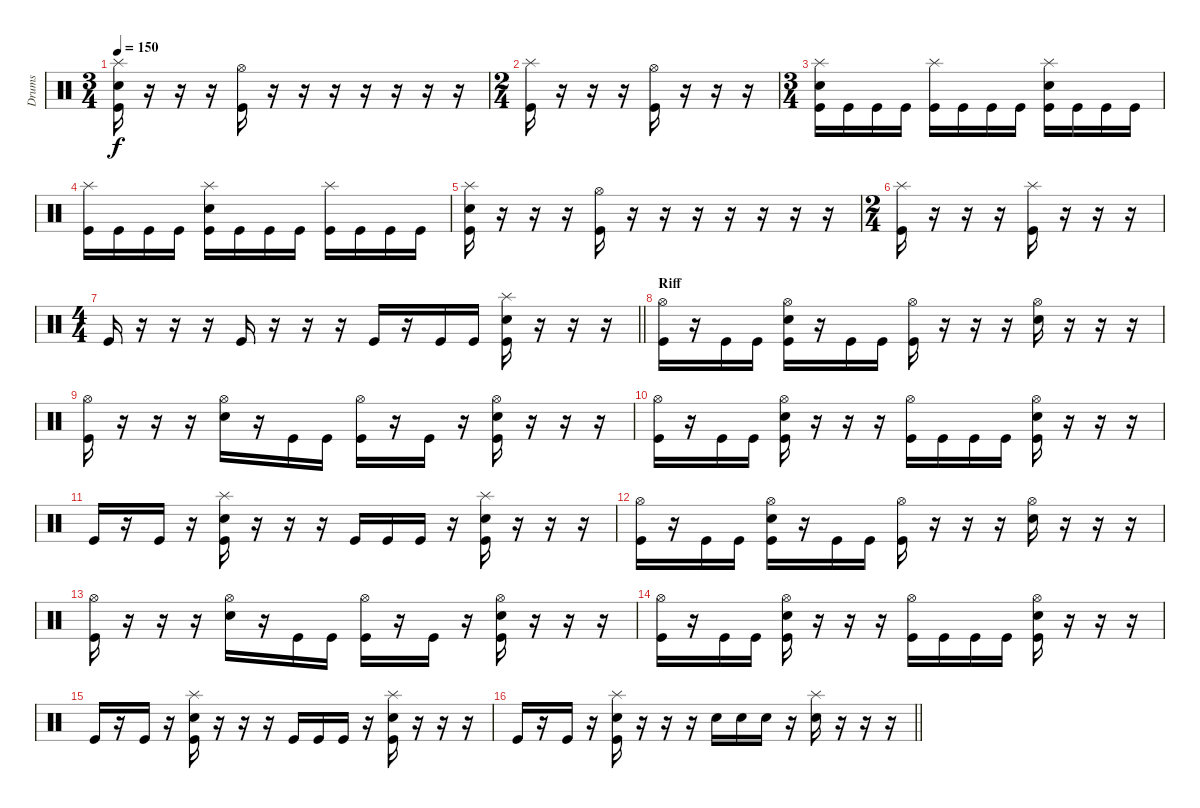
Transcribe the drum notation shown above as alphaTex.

\track ("Drums" "Drums") {instrument percussion}
\staff
\articulation defaults
\ts (3 4)
\tempo 150
\clef neutral
\ks c
("Splash (hit)" "Snare (hit) 2" "Kick (hit)").16{dy f} r.16 r.16 r.16 ("Hi-Hat (open)" "Kick (hit)").16 r.16 r.16 r.16 r.16 r.16 r.16 r.16 |
\ts (2 4)
("Splash (hit)" "Kick (hit)").16 r.16 r.16 r.16 ("Hi-Hat (open)" "Kick (hit)").16 r.16 r.16 r.16 |
\ts (3 4)
("Splash (hit)" "Snare (hit) 2" "Kick (hit)").16 "Kick (hit)".16 "Kick (hit)".16 "Kick (hit)".16 ("Splash (hit)" "Kick (hit)").16 "Kick (hit)".16 "Kick (hit)".16 "Kick (hit)".16 ("Splash (hit)" "Snare (hit) 2" "Kick (hit)").16 "Kick (hit)".16 "Kick (hit)".16 "Kick (hit)".16 |
("Splash (hit)" "Kick (hit)").16 "Kick (hit)".16 "Kick (hit)".16 "Kick (hit)".16 ("Splash (hit)" "Snare (hit) 2" "Kick (hit)").16 "Kick (hit)".16 "Kick (hit)".16 "Kick (hit)".16 ("Splash (hit)" "Kick (hit)").16 "Kick (hit)".16 "Kick (hit)".16 "Kick (hit)".16 |
("Splash (hit)" "Snare (hit) 2" "Kick (hit)").16 r.16 r.16 r.16 ("Hi-Hat (open)" "Kick (hit)").16 r.16 r.16 r.16 r.16 r.16 r.16 r.16 |
\ts (2 4)
("Splash (hit)" "Kick (hit)").16 r.16 r.16 r.16 ("Splash (hit)" "Kick (hit)").16 r.16 r.16 r.16 |
\ts (4 4)
\barLineRight lightlight "Kick (hit)".16
r.16 r.16 r.16 "Kick (hit)".16 r.16 r.16 r.16 "Kick (hit)".16 r.16 "Kick (hit)".16 "Kick (hit)".16 ("Splash (hit)" "Snare (hit) 2" "Kick (hit)").16 r.16 r.16 r.16 |
\section ("" "Riff")
("Hi-Hat (open)" "Kick (hit)").16 r.16 "Kick (hit)".16 "Kick (hit)".16 ("Hi-Hat (open)" "Snare (hit) 2" "Kick (hit)").16 r.16 "Kick (hit)".16 "Kick (hit)".16 ("Hi-Hat (open)" "Kick (hit)").16 r.16 r.16 r.16 ("Hi-Hat (open)" "Snare (hit) 2").16 r.16 r.16 r.16 |
("Hi-Hat (open)" "Kick (hit)").16 r.16 r.16 r.16 ("Hi-Hat (open)" "Snare (hit) 2").16 r.16 "Kick (hit)".16 "Kick (hit)".16 ("Hi-Hat (open)" "Kick (hit)").16 r.16 "Kick (hit)".16 r.16 ("Hi-Hat (open)" "Snare (hit) 2" "Kick (hit)").16 r.16 r.16 r.16 |
("Hi-Hat (open)" "Kick (hit)").16 r.16 "Kick (hit)".16 "Kick (hit)".16 ("Hi-Hat (open)" "Snare (hit) 2" "Kick (hit)").16 r.16 r.16 r.16 ("Hi-Hat (open)" "Kick (hit)").16 "Kick (hit)".16 "Kick (hit)".16 "Kick (hit)".16 ("Hi-Hat (open)" "Snare (hit) 2" "Kick (hit)").16 r.16 r.16 r.16 |
"Kick (hit)".16 r.16 "Kick (hit)".16 r.16 ("Splash (hit)" "Snare (hit) 2" "Kick (hit)").16 r.16 r.16 r.16 "Kick (hit)".16 "Kick (hit)".16 "Kick (hit)".16 r.16 ("Splash (hit)" "Snare (hit) 2" "Kick (hit)").16 r.16 r.16 r.16 |
("Hi-Hat (open)" "Kick (hit)").16 r.16 "Kick (hit)".16 "Kick (hit)".16 ("Hi-Hat (open)" "Snare (hit) 2" "Kick (hit)").16 r.16 "Kick (hit)".16 "Kick (hit)".16 ("Hi-Hat (open)" "Kick (hit)").16 r.16 r.16 r.16 ("Hi-Hat (open)" "Snare (hit) 2").16 r.16 r.16 r.16 |
("Hi-Hat (open)" "Kick (hit)").16 r.16 r.16 r.16 ("Hi-Hat (open)" "Snare (hit) 2").16 r.16 "Kick (hit)".16 "Kick (hit)".16 ("Hi-Hat (open)" "Kick (hit)").16 r.16 "Kick (hit)".16 r.16 ("Hi-Hat (open)" "Snare (hit) 2" "Kick (hit)").16 r.16 r.16 r.16 |
("Hi-Hat (open)" "Kick (hit)").16 r.16 "Kick (hit)".16 "Kick (hit)".16 ("Hi-Hat (open)" "Snare (hit) 2" "Kick (hit)").16 r.16 r.16 r.16 ("Hi-Hat (open)" "Kick (hit)").16 "Kick (hit)".16 "Kick (hit)".16 "Kick (hit)".16 ("Hi-Hat (open)" "Snare (hit) 2" "Kick (hit)").16 r.16 r.16 r.16 |
"Kick (hit)".16 r.16 "Kick (hit)".16 r.16 ("Splash (hit)" "Snare (hit) 2" "Kick (hit)").16 r.16 r.16 r.16 "Kick (hit)".16 "Kick (hit)".16 "Kick (hit)".16 r.16 ("Splash (hit)" "Snare (hit) 2" "Kick (hit)").16 r.16 r.16 r.16 |
\barLineRight lightlight "Kick (hit)".16
r.16 "Kick (hit)".16 r.16 ("Splash (hit)" "Snare (hit) 2" "Kick (hit)").16 r.16 r.16 r.16 "Snare (hit) 2".16 "Snare (hit) 2".16 "Snare (hit) 2".16 r.16 ("Splash (hit)" "Snare (hit) 2").16 r.16 r.16 r.16
